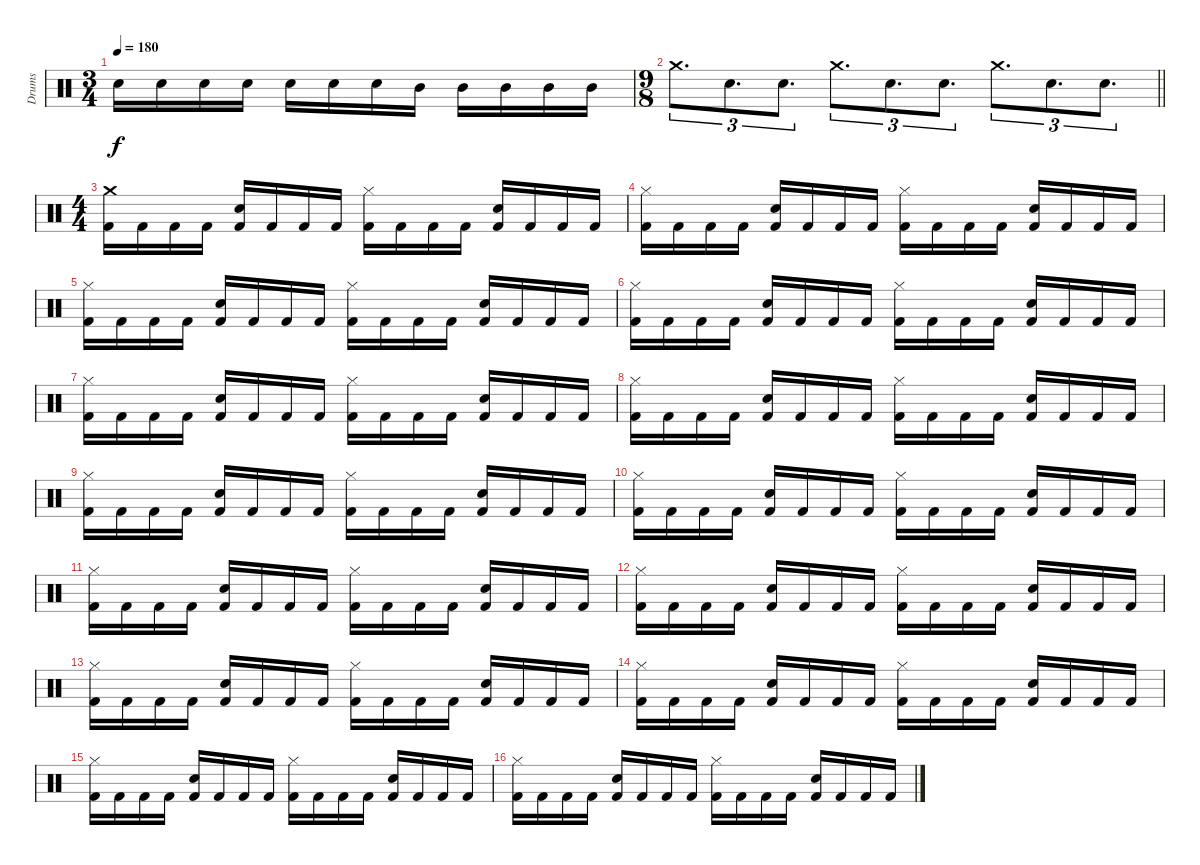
\track ("Drums" "Drums") {instrument percussion}
\staff {score}
\articulation defaults
\ts (3 4)
\tempo 180
\clef neutral
\ks c "Snare (hit) 2".16{dy f} "Snare (hit) 2".16 "Snare (hit) 2".16 "Snare (hit) 2".16 "Snare (hit) 2".16 "Snare (hit) 2".16 "Snare (hit) 2".16 "Mid Tom (hit)".16 "Mid Tom (hit)".16 "Mid Tom (hit)".16 "Mid Tom (hit)".16 "Mid Tom (hit)".16
|
\ts (9 8)
\barLineRight lightlight "Crash medium (hit)".8{d tu (3 2)} "Snare (hit) 2".8{d tu (3 2)} "Snare (hit) 2".8{d tu (3 2)} "Crash medium (hit)".8{d tu (3 2)} "Snare (hit) 2".8{d tu (3 2)} "Snare (hit) 2".8{d tu (3 2)} "Crash medium (hit)".8{d tu (3 2)} "Snare (hit) 2".8{d tu (3 2)} "Snare (hit) 2".8{d tu (3 2)}
|
\ts (4 4)
("Crash medium (hit)" "Kick (hit) 2").16 "Kick (hit) 2".16 "Kick (hit) 2".16 "Kick (hit) 2".16 ("Snare (hit) 2" "Kick (hit) 2").16 "Kick (hit) 2".16 "Kick (hit) 2".16 "Kick (hit) 2".16 ("Hi-Hat (closed)" "Kick (hit) 2").16 "Kick (hit) 2".16 "Kick (hit) 2".16 "Kick (hit) 2".16 ("Snare (hit) 2" "Kick (hit) 2").16 "Kick (hit) 2".16 "Kick (hit) 2".16 "Kick (hit) 2".16 |
("Hi-Hat (closed)" "Kick (hit) 2").16 "Kick (hit) 2".16 "Kick (hit) 2".16 "Kick (hit) 2".16 ("Snare (hit) 2" "Kick (hit) 2").16 "Kick (hit) 2".16 "Kick (hit) 2".16 "Kick (hit) 2".16 ("Hi-Hat (closed)" "Kick (hit) 2").16 "Kick (hit) 2".16 "Kick (hit) 2".16 "Kick (hit) 2".16 ("Snare (hit) 2" "Kick (hit) 2").16 "Kick (hit) 2".16 "Kick (hit) 2".16 "Kick (hit) 2".16 |
("Hi-Hat (closed)" "Kick (hit) 2").16 "Kick (hit) 2".16 "Kick (hit) 2".16 "Kick (hit) 2".16 ("Snare (hit) 2" "Kick (hit) 2").16 "Kick (hit) 2".16 "Kick (hit) 2".16 "Kick (hit) 2".16 ("Hi-Hat (closed)" "Kick (hit) 2").16 "Kick (hit) 2".16 "Kick (hit) 2".16 "Kick (hit) 2".16 ("Snare (hit) 2" "Kick (hit) 2").16 "Kick (hit) 2".16 "Kick (hit) 2".16 "Kick (hit) 2".16 |
("Hi-Hat (closed)" "Kick (hit) 2").16 "Kick (hit) 2".16 "Kick (hit) 2".16 "Kick (hit) 2".16 ("Snare (hit) 2" "Kick (hit) 2").16 "Kick (hit) 2".16 "Kick (hit) 2".16 "Kick (hit) 2".16 ("Hi-Hat (closed)" "Kick (hit) 2").16 "Kick (hit) 2".16 "Kick (hit) 2".16 "Kick (hit) 2".16 ("Snare (hit) 2" "Kick (hit) 2").16 "Kick (hit) 2".16 "Kick (hit) 2".16 "Kick (hit) 2".16 |
("Hi-Hat (closed)" "Kick (hit) 2").16 "Kick (hit) 2".16 "Kick (hit) 2".16 "Kick (hit) 2".16 ("Snare (hit) 2" "Kick (hit) 2").16 "Kick (hit) 2".16 "Kick (hit) 2".16 "Kick (hit) 2".16 ("Hi-Hat (closed)" "Kick (hit) 2").16 "Kick (hit) 2".16 "Kick (hit) 2".16 "Kick (hit) 2".16 ("Snare (hit) 2" "Kick (hit) 2").16 "Kick (hit) 2".16 "Kick (hit) 2".16 "Kick (hit) 2".16 |
("Hi-Hat (closed)" "Kick (hit) 2").16 "Kick (hit) 2".16 "Kick (hit) 2".16 "Kick (hit) 2".16 ("Snare (hit) 2" "Kick (hit) 2").16 "Kick (hit) 2".16 "Kick (hit) 2".16 "Kick (hit) 2".16 ("Hi-Hat (closed)" "Kick (hit) 2").16 "Kick (hit) 2".16 "Kick (hit) 2".16 "Kick (hit) 2".16 ("Snare (hit) 2" "Kick (hit) 2").16 "Kick (hit) 2".16 "Kick (hit) 2".16 "Kick (hit) 2".16 |
("Hi-Hat (closed)" "Kick (hit) 2").16 "Kick (hit) 2".16 "Kick (hit) 2".16 "Kick (hit) 2".16 ("Snare (hit) 2" "Kick (hit) 2").16 "Kick (hit) 2".16 "Kick (hit) 2".16 "Kick (hit) 2".16 ("Hi-Hat (closed)" "Kick (hit) 2").16 "Kick (hit) 2".16 "Kick (hit) 2".16 "Kick (hit) 2".16 ("Snare (hit) 2" "Kick (hit) 2").16 "Kick (hit) 2".16 "Kick (hit) 2".16 "Kick (hit) 2".16 |
("Hi-Hat (closed)" "Kick (hit) 2").16 "Kick (hit) 2".16 "Kick (hit) 2".16 "Kick (hit) 2".16 ("Snare (hit) 2" "Kick (hit) 2").16 "Kick (hit) 2".16 "Kick (hit) 2".16 "Kick (hit) 2".16 ("Hi-Hat (closed)" "Kick (hit) 2").16 "Kick (hit) 2".16 "Kick (hit) 2".16 "Kick (hit) 2".16 ("Snare (hit) 2" "Kick (hit) 2").16 "Kick (hit) 2".16 "Kick (hit) 2".16 "Kick (hit) 2".16 |
("Hi-Hat (closed)" "Kick (hit) 2").16 "Kick (hit) 2".16 "Kick (hit) 2".16 "Kick (hit) 2".16 ("Snare (hit) 2" "Kick (hit) 2").16 "Kick (hit) 2".16 "Kick (hit) 2".16 "Kick (hit) 2".16 ("Hi-Hat (closed)" "Kick (hit) 2").16 "Kick (hit) 2".16 "Kick (hit) 2".16 "Kick (hit) 2".16 ("Snare (hit) 2" "Kick (hit) 2").16 "Kick (hit) 2".16 "Kick (hit) 2".16 "Kick (hit) 2".16 |
("Hi-Hat (closed)" "Kick (hit) 2").16 "Kick (hit) 2".16 "Kick (hit) 2".16 "Kick (hit) 2".16 ("Snare (hit) 2" "Kick (hit) 2").16 "Kick (hit) 2".16 "Kick (hit) 2".16 "Kick (hit) 2".16 ("Hi-Hat (closed)" "Kick (hit) 2").16 "Kick (hit) 2".16 "Kick (hit) 2".16 "Kick (hit) 2".16 ("Snare (hit) 2" "Kick (hit) 2").16 "Kick (hit) 2".16 "Kick (hit) 2".16 "Kick (hit) 2".16 |
("Hi-Hat (closed)" "Kick (hit) 2").16 "Kick (hit) 2".16 "Kick (hit) 2".16 "Kick (hit) 2".16 ("Snare (hit) 2" "Kick (hit) 2").16 "Kick (hit) 2".16 "Kick (hit) 2".16 "Kick (hit) 2".16 ("Hi-Hat (closed)" "Kick (hit) 2").16 "Kick (hit) 2".16 "Kick (hit) 2".16 "Kick (hit) 2".16 ("Snare (hit) 2" "Kick (hit) 2").16 "Kick (hit) 2".16 "Kick (hit) 2".16 "Kick (hit) 2".16 |
("Hi-Hat (closed)" "Kick (hit) 2").16 "Kick (hit) 2".16 "Kick (hit) 2".16 "Kick (hit) 2".16 ("Snare (hit) 2" "Kick (hit) 2").16 "Kick (hit) 2".16 "Kick (hit) 2".16 "Kick (hit) 2".16 ("Hi-Hat (closed)" "Kick (hit) 2").16 "Kick (hit) 2".16 "Kick (hit) 2".16 "Kick (hit) 2".16 ("Snare (hit) 2" "Kick (hit) 2").16 "Kick (hit) 2".16 "Kick (hit) 2".16 "Kick (hit) 2".16 |
("Hi-Hat (closed)" "Kick (hit) 2").16 "Kick (hit) 2".16 "Kick (hit) 2".16 "Kick (hit) 2".16 ("Snare (hit) 2" "Kick (hit) 2").16 "Kick (hit) 2".16 "Kick (hit) 2".16 "Kick (hit) 2".16 ("Hi-Hat (closed)" "Kick (hit) 2").16 "Kick (hit) 2".16 "Kick (hit) 2".16 "Kick (hit) 2".16 ("Snare (hit) 2" "Kick (hit) 2").16 "Kick (hit) 2".16 "Kick (hit) 2".16 "Kick (hit) 2".16 |
("Hi-Hat (closed)" "Kick (hit) 2").16 "Kick (hit) 2".16 "Kick (hit) 2".16 "Kick (hit) 2".16 ("Snare (hit) 2" "Kick (hit) 2").16 "Kick (hit) 2".16 "Kick (hit) 2".16 "Kick (hit) 2".16 ("Hi-Hat (closed)" "Kick (hit) 2").16 "Kick (hit) 2".16 "Kick (hit) 2".16 "Kick (hit) 2".16 ("Snare (hit) 2" "Kick (hit) 2").16 "Kick (hit) 2".16 "Kick (hit) 2".16 "Kick (hit) 2".16
